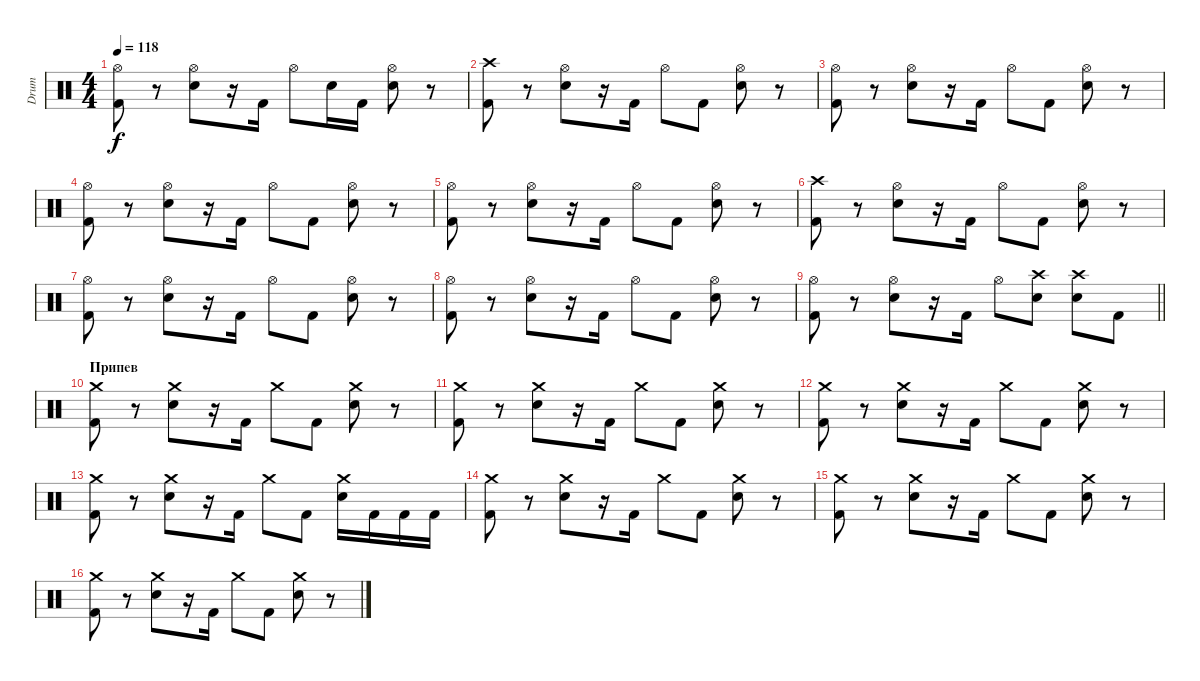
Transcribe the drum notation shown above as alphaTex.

\track ("Drum" "Drum") {instrument percussion}
\staff {score}
\articulation defaults
\ts (4 4)
\tempo 118
\clef neutral
\ks c
("Hi-Hat (open)" "Kick (hit) 2").8{dy f} r.8 ("Hi-Hat (open)" "Snare (hit) 2").8 r.16 "Kick (hit) 2".16 "Hi-Hat (open)".8 "Snare (hit) 2".16 "Kick (hit) 2".16 ("Hi-Hat (open)" "Snare (hit) 2").8 r.8 |
("Crash high (hit)" "Kick (hit) 2").8 r.8 ("Hi-Hat (open)" "Snare (hit) 2").8 r.16 "Kick (hit) 2".16 "Hi-Hat (open)".8 "Kick (hit) 2".8 ("Hi-Hat (open)" "Snare (hit) 2").8 r.8 |
("Hi-Hat (open)" "Kick (hit) 2").8 r.8 ("Hi-Hat (open)" "Snare (hit) 2").8 r.16 "Kick (hit) 2".16 "Hi-Hat (open)".8 "Kick (hit) 2".8 ("Hi-Hat (open)" "Snare (hit) 2").8 r.8 |
("Hi-Hat (open)" "Kick (hit) 2").8 r.8 ("Hi-Hat (open)" "Snare (hit) 2").8 r.16 "Kick (hit) 2".16 "Hi-Hat (open)".8 "Kick (hit) 2".8 ("Hi-Hat (open)" "Snare (hit) 2").8 r.8 |
("Hi-Hat (open)" "Kick (hit) 2").8 r.8 ("Hi-Hat (open)" "Snare (hit) 2").8 r.16 "Kick (hit) 2".16 "Hi-Hat (open)".8 "Kick (hit) 2".8 ("Hi-Hat (open)" "Snare (hit) 2").8 r.8 |
("Crash high (hit)" "Kick (hit) 2").8 r.8 ("Hi-Hat (open)" "Snare (hit) 2").8 r.16 "Kick (hit) 2".16 "Hi-Hat (open)".8 "Kick (hit) 2".8 ("Hi-Hat (open)" "Snare (hit) 2").8 r.8 |
("Hi-Hat (open)" "Kick (hit) 2").8 r.8 ("Hi-Hat (open)" "Snare (hit) 2").8 r.16 "Kick (hit) 2".16 "Hi-Hat (open)".8 "Kick (hit) 2".8 ("Hi-Hat (open)" "Snare (hit) 2").8 r.8 |
("Hi-Hat (open)" "Kick (hit) 2").8 r.8 ("Hi-Hat (open)" "Snare (hit) 2").8 r.16 "Kick (hit) 2".16 "Hi-Hat (open)".8 "Kick (hit) 2".8 ("Hi-Hat (open)" "Snare (hit) 2").8 r.8 |
\barLineRight lightlight
("Hi-Hat (open)" "Kick (hit) 2").8 r.8 ("Hi-Hat (open)" "Snare (hit) 2").8 r.16 "Kick (hit) 2".16 "Hi-Hat (open)".8 ("Crash high (hit)" "Snare (hit) 2").8 ("Crash high (hit)" "Snare (hit) 2").8 "Kick (hit) 2".8 |
\section ("" "Припев")
("Crash medium (hit)" "Kick (hit) 2").8 r.8 ("Crash medium (hit)" "Snare (hit) 2").8 r.16 "Kick (hit) 2".16 "Crash medium (hit)".8 "Kick (hit) 2".8 ("Crash medium (hit)" "Snare (hit) 2").8 r.8 |
("Crash medium (hit)" "Kick (hit) 2").8 r.8 ("Crash medium (hit)" "Snare (hit) 2").8 r.16 "Kick (hit) 2".16 "Crash medium (hit)".8 "Kick (hit) 2".8 ("Crash medium (hit)" "Snare (hit) 2").8 r.8 |
("Crash medium (hit)" "Kick (hit) 2").8 r.8 ("Crash medium (hit)" "Snare (hit) 2").8 r.16 "Kick (hit) 2".16 "Crash medium (hit)".8 "Kick (hit) 2".8 ("Crash medium (hit)" "Snare (hit) 2").8 r.8 |
("Crash medium (hit)" "Kick (hit) 2").8 r.8 ("Crash medium (hit)" "Snare (hit) 2").8 r.16 "Kick (hit) 2".16 "Crash medium (hit)".8 "Kick (hit) 2".8 ("Crash medium (hit)" "Snare (hit) 2").16 "Kick (hit) 2".16 "Kick (hit) 2".16 "Kick (hit) 2".16 |
("Crash medium (hit)" "Kick (hit) 2").8 r.8 ("Crash medium (hit)" "Snare (hit) 2").8 r.16 "Kick (hit) 2".16 "Crash medium (hit)".8 "Kick (hit) 2".8 ("Crash medium (hit)" "Snare (hit) 2").8 r.8 |
("Crash medium (hit)" "Kick (hit) 2").8 r.8 ("Crash medium (hit)" "Snare (hit) 2").8 r.16 "Kick (hit) 2".16 "Crash medium (hit)".8 "Kick (hit) 2".8 ("Crash medium (hit)" "Snare (hit) 2").8 r.8 |
("Crash medium (hit)" "Kick (hit) 2").8 r.8 ("Crash medium (hit)" "Snare (hit) 2").8 r.16 "Kick (hit) 2".16 "Crash medium (hit)".8 "Kick (hit) 2".8 ("Crash medium (hit)" "Snare (hit) 2").8 r.8
